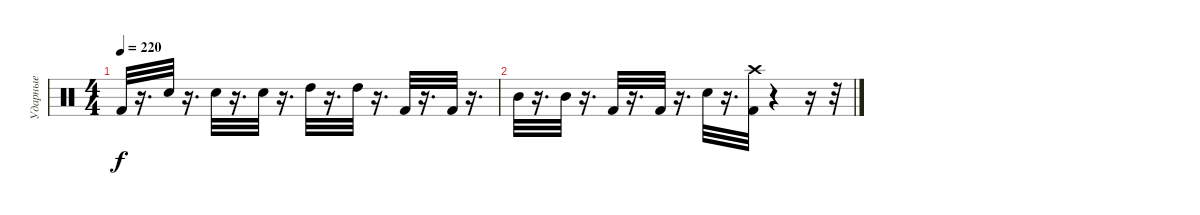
\track ("Ударные" "Ударные") {instrument percussion}
\staff {score}
\articulation defaults
\ts (4 4)
\tempo 220
\clef neutral
\ks c "Kick (hit) 2".32{dy f}
r.16{d} "Electric Snare (hit)".32 r.16{d} "Electric Snare (hit)".32 r.16{d} "Electric Snare (hit)".32 r.16{d} "High Tom (hit)".32 r.16{d} "High Tom (hit)".32 r.16{d} "Kick (hit) 2".32 r.16{d} "Kick (hit) 2".32 r.16{d} |
"Mid Tom (hit)".32 r.16{d} "Mid Tom (hit)".32 r.16{d} "Kick (hit) 2".32 r.16{d} "Kick (hit) 2".32 r.16{d} "Electric Snare (hit)".32 r.16{d} ("Crash high (hit)" "Kick (hit) 2").32 r.4 r.16 r.32
